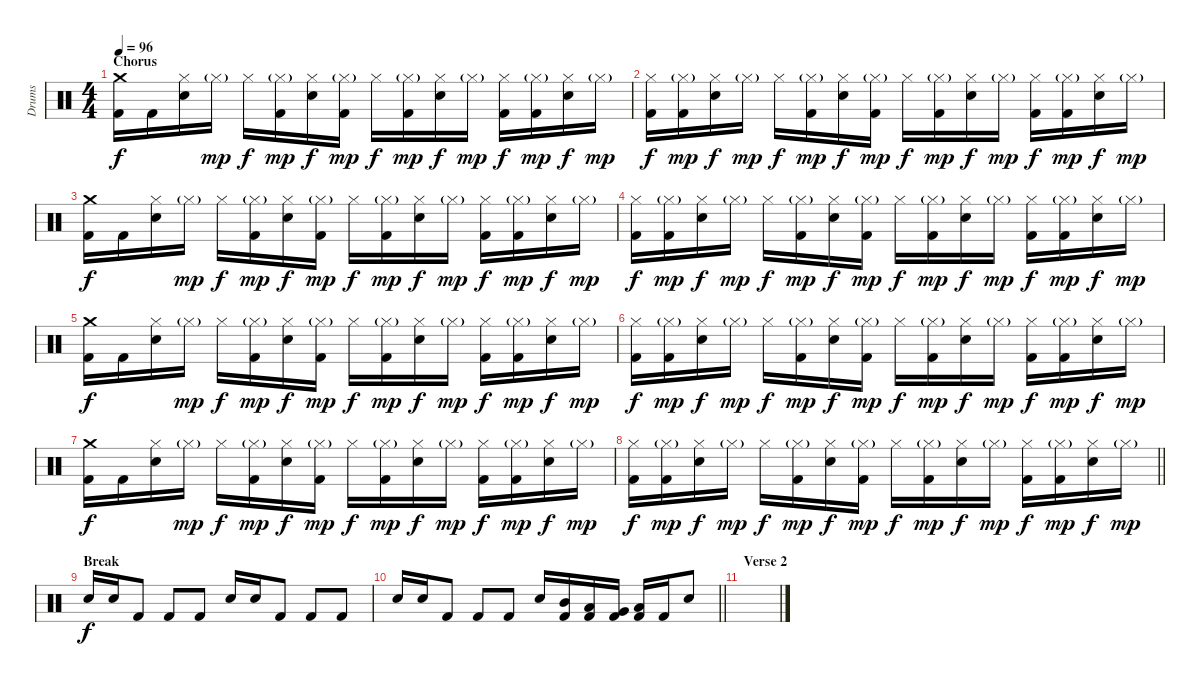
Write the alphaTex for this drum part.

\track ("Drums" "Drums") {instrument percussion}
\staff {score}
\articulation defaults
\ts (4 4)
\section ("" "Chorus")
\tempo 96
\clef neutral
\ks c
("Crash medium (hit)" "Kick (hit) 2").16{dy f} "Kick (hit) 2".16 ("Hi-Hat (closed)" "Electric Snare (hit)").16 "Hi-Hat (closed)"{g}.16{dy mp} "Hi-Hat (closed)".16{dy f} ("Hi-Hat (closed)"{g} "Kick (hit) 2").16{dy mp} ("Hi-Hat (closed)" "Electric Snare (hit)").16{dy f} ("Hi-Hat (closed)"{g} "Kick (hit) 2").16{dy mp} "Hi-Hat (closed)".16{dy f} ("Hi-Hat (closed)"{g} "Kick (hit) 2").16{dy mp} ("Hi-Hat (closed)" "Electric Snare (hit)").16{dy f} "Hi-Hat (closed)"{g}.16{dy mp} ("Hi-Hat (closed)" "Kick (hit) 2").16{dy f} ("Hi-Hat (closed)"{g} "Kick (hit) 2").16{dy mp} ("Hi-Hat (closed)" "Electric Snare (hit)").16{dy f} "Hi-Hat (closed)"{g}.16{dy mp} |
("Hi-Hat (closed)" "Kick (hit) 2").16{dy f} ("Hi-Hat (closed)"{g} "Kick (hit) 2").16{dy mp} ("Hi-Hat (closed)" "Electric Snare (hit)").16{dy f} "Hi-Hat (closed)"{g}.16{dy mp} "Hi-Hat (closed)".16{dy f} ("Hi-Hat (closed)"{g} "Kick (hit) 2").16{dy mp} ("Hi-Hat (closed)" "Electric Snare (hit)").16{dy f} ("Hi-Hat (closed)"{g} "Kick (hit) 2").16{dy mp} "Hi-Hat (closed)".16{dy f} ("Hi-Hat (closed)"{g} "Kick (hit) 2").16{dy mp} ("Hi-Hat (closed)" "Electric Snare (hit)").16{dy f} "Hi-Hat (closed)"{g}.16{dy mp} ("Hi-Hat (closed)" "Kick (hit) 2").16{dy f} ("Hi-Hat (closed)"{g} "Kick (hit) 2").16{dy mp} ("Hi-Hat (closed)" "Electric Snare (hit)").16{dy f} "Hi-Hat (closed)"{g}.16{dy mp} |
("Crash medium (hit)" "Kick (hit) 2").16{dy f} "Kick (hit) 2".16 ("Hi-Hat (closed)" "Electric Snare (hit)").16 "Hi-Hat (closed)"{g}.16{dy mp} "Hi-Hat (closed)".16{dy f} ("Hi-Hat (closed)"{g} "Kick (hit) 2").16{dy mp} ("Hi-Hat (closed)" "Electric Snare (hit)").16{dy f} ("Hi-Hat (closed)"{g} "Kick (hit) 2").16{dy mp} "Hi-Hat (closed)".16{dy f} ("Hi-Hat (closed)"{g} "Kick (hit) 2").16{dy mp} ("Hi-Hat (closed)" "Electric Snare (hit)").16{dy f} "Hi-Hat (closed)"{g}.16{dy mp} ("Hi-Hat (closed)" "Kick (hit) 2").16{dy f} ("Hi-Hat (closed)"{g} "Kick (hit) 2").16{dy mp} ("Hi-Hat (closed)" "Electric Snare (hit)").16{dy f} "Hi-Hat (closed)"{g}.16{dy mp} |
("Hi-Hat (closed)" "Kick (hit) 2").16{dy f} ("Hi-Hat (closed)"{g} "Kick (hit) 2").16{dy mp} ("Hi-Hat (closed)" "Electric Snare (hit)").16{dy f} "Hi-Hat (closed)"{g}.16{dy mp} "Hi-Hat (closed)".16{dy f} ("Hi-Hat (closed)"{g} "Kick (hit) 2").16{dy mp} ("Hi-Hat (closed)" "Electric Snare (hit)").16{dy f} ("Hi-Hat (closed)"{g} "Kick (hit) 2").16{dy mp} "Hi-Hat (closed)".16{dy f} ("Hi-Hat (closed)"{g} "Kick (hit) 2").16{dy mp} ("Hi-Hat (closed)" "Electric Snare (hit)").16{dy f} "Hi-Hat (closed)"{g}.16{dy mp} ("Hi-Hat (closed)" "Kick (hit) 2").16{dy f} ("Hi-Hat (closed)"{g} "Kick (hit) 2").16{dy mp} ("Hi-Hat (closed)" "Electric Snare (hit)").16{dy f} "Hi-Hat (closed)"{g}.16{dy mp} |
("Crash medium (hit)" "Kick (hit) 2").16{dy f} "Kick (hit) 2".16 ("Hi-Hat (closed)" "Electric Snare (hit)").16 "Hi-Hat (closed)"{g}.16{dy mp} "Hi-Hat (closed)".16{dy f} ("Hi-Hat (closed)"{g} "Kick (hit) 2").16{dy mp} ("Hi-Hat (closed)" "Electric Snare (hit)").16{dy f} ("Hi-Hat (closed)"{g} "Kick (hit) 2").16{dy mp} "Hi-Hat (closed)".16{dy f} ("Hi-Hat (closed)"{g} "Kick (hit) 2").16{dy mp} ("Hi-Hat (closed)" "Electric Snare (hit)").16{dy f} "Hi-Hat (closed)"{g}.16{dy mp} ("Hi-Hat (closed)" "Kick (hit) 2").16{dy f} ("Hi-Hat (closed)"{g} "Kick (hit) 2").16{dy mp} ("Hi-Hat (closed)" "Electric Snare (hit)").16{dy f} "Hi-Hat (closed)"{g}.16{dy mp} |
("Hi-Hat (closed)" "Kick (hit) 2").16{dy f} ("Hi-Hat (closed)"{g} "Kick (hit) 2").16{dy mp} ("Hi-Hat (closed)" "Electric Snare (hit)").16{dy f} "Hi-Hat (closed)"{g}.16{dy mp} "Hi-Hat (closed)".16{dy f} ("Hi-Hat (closed)"{g} "Kick (hit) 2").16{dy mp} ("Hi-Hat (closed)" "Electric Snare (hit)").16{dy f} ("Hi-Hat (closed)"{g} "Kick (hit) 2").16{dy mp} "Hi-Hat (closed)".16{dy f} ("Hi-Hat (closed)"{g} "Kick (hit) 2").16{dy mp} ("Hi-Hat (closed)" "Electric Snare (hit)").16{dy f} "Hi-Hat (closed)"{g}.16{dy mp} ("Hi-Hat (closed)" "Kick (hit) 2").16{dy f} ("Hi-Hat (closed)"{g} "Kick (hit) 2").16{dy mp} ("Hi-Hat (closed)" "Electric Snare (hit)").16{dy f} "Hi-Hat (closed)"{g}.16{dy mp} |
("Crash medium (hit)" "Kick (hit) 2").16{dy f} "Kick (hit) 2".16 ("Hi-Hat (closed)" "Electric Snare (hit)").16 "Hi-Hat (closed)"{g}.16{dy mp} "Hi-Hat (closed)".16{dy f} ("Hi-Hat (closed)"{g} "Kick (hit) 2").16{dy mp} ("Hi-Hat (closed)" "Electric Snare (hit)").16{dy f} ("Hi-Hat (closed)"{g} "Kick (hit) 2").16{dy mp} "Hi-Hat (closed)".16{dy f} ("Hi-Hat (closed)"{g} "Kick (hit) 2").16{dy mp} ("Hi-Hat (closed)" "Electric Snare (hit)").16{dy f} "Hi-Hat (closed)"{g}.16{dy mp} ("Hi-Hat (closed)" "Kick (hit) 2").16{dy f} ("Hi-Hat (closed)"{g} "Kick (hit) 2").16{dy mp} ("Hi-Hat (closed)" "Electric Snare (hit)").16{dy f} "Hi-Hat (closed)"{g}.16{dy mp} |
\barLineRight lightlight
("Hi-Hat (closed)" "Kick (hit) 2").16{dy f} ("Hi-Hat (closed)"{g} "Kick (hit) 2").16{dy mp} ("Hi-Hat (closed)" "Electric Snare (hit)").16{dy f} "Hi-Hat (closed)"{g}.16{dy mp} "Hi-Hat (closed)".16{dy f} ("Hi-Hat (closed)"{g} "Kick (hit) 2").16{dy mp} ("Hi-Hat (closed)" "Electric Snare (hit)").16{dy f} ("Hi-Hat (closed)"{g} "Kick (hit) 2").16{dy mp} "Hi-Hat (closed)".16{dy f} ("Hi-Hat (closed)"{g} "Kick (hit) 2").16{dy mp} ("Hi-Hat (closed)" "Electric Snare (hit)").16{dy f} "Hi-Hat (closed)"{g}.16{dy mp} ("Hi-Hat (closed)" "Kick (hit) 2").16{dy f} ("Hi-Hat (closed)"{g} "Kick (hit) 2").16{dy mp} ("Hi-Hat (closed)" "Electric Snare (hit)").16{dy f} "Hi-Hat (closed)"{g}.16{dy mp} |
\section ("" "Break")
"Electric Snare (hit)".16{dy f} "Electric Snare (hit)".16 "Kick (hit) 2".8 "Kick (hit) 2".8 "Kick (hit) 2".8 "Electric Snare (hit)".16 "Electric Snare (hit)".16 "Kick (hit) 2".8 "Kick (hit) 2".8 "Kick (hit) 2".8 |
\barLineRight lightlight "Electric Snare (hit)".16 "Electric Snare (hit)".16 "Kick (hit) 2".8 "Kick (hit) 2".8 "Kick (hit) 2".8 "Electric Snare (hit)".16
("Mid Tom (hit)" "Kick (hit) 2").16 ("Low Tom (hit)" "Kick (hit) 2").16 ("Very Low Tom (hit)" "Kick (hit) 2").16 ("Low Floor Tom (hit)" "Kick (hit) 2").16 "Kick (hit) 2".16 "Electric Snare (hit)".8 |
\section ("" "Verse 2")
